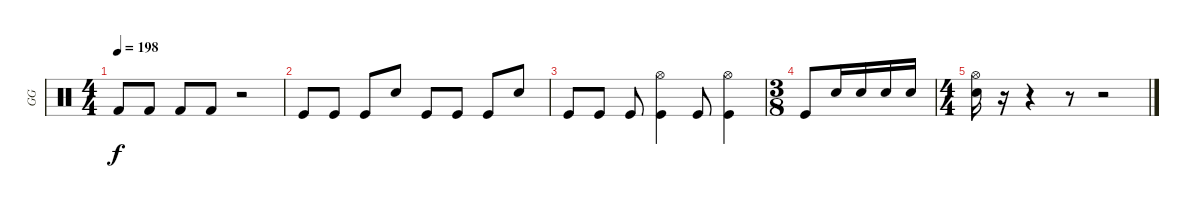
\track ("GG" "GG") {instrument percussion}
\staff {score}
\articulation defaults
\ts (4 4)
\tempo 198
\clef neutral
\ks c "Kick (hit) 2".8{dy f} "Kick (hit) 2".8 "Kick (hit) 2".8 "Kick (hit) 2".8
r.2 |
"Kick (hit)".8 "Kick (hit)".8 "Kick (hit)".8 "Snare (hit) 2".8 "Kick (hit)".8 "Kick (hit)".8 "Kick (hit)".8 "Snare (hit) 2".8 |
"Kick (hit)".8 "Kick (hit)".8 "Kick (hit)".8 ("Hi-Hat (open)" "Kick (hit)").4 "Kick (hit)".8 ("Hi-Hat (open)" "Kick (hit)").4 |
\ts (3 8)
"Kick (hit)".8 "Snare (hit) 2".16 "Snare (hit) 2".16 "Snare (hit) 2".16 "Snare (hit) 2".16 |
\ts (4 4)
("Hi-Hat (open)" "Snare (hit) 2").16 r.16 r.4 r.8 r.2
